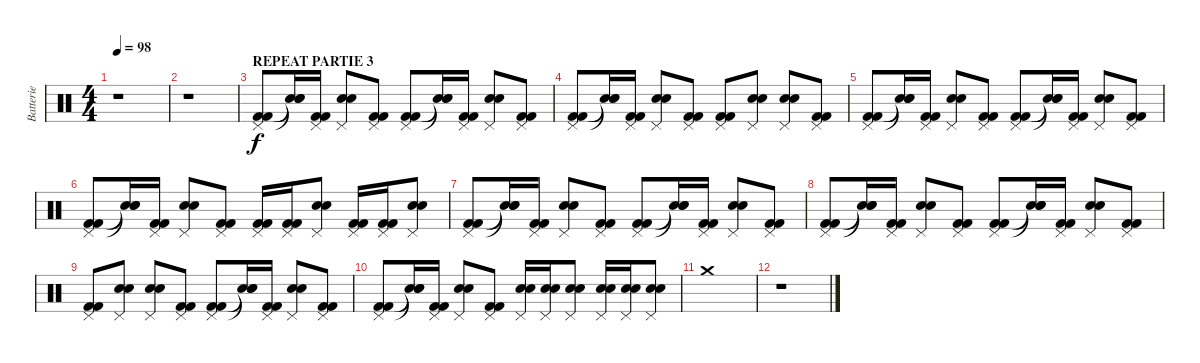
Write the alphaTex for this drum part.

\track ("Batterie" "Batterie") {instrument percussion}
\staff {score}
\articulation defaults
\ts (4 4)
\tempo 98
\clef neutral
\ks c
r.1{dy f} |
r.1 |
\section ("" "REPEAT PARTIE 3")
("Pedal Hi-Hat (hit)" "Kick (hit) 2" "Kick (hit) 2").8 ("Snare (hit)"{t} "Snare (hit)"{t} "Snare (hit)"{t}).16 ("Pedal Hi-Hat (hit)" "Kick (hit) 2" "Kick (hit) 2").16 ("Pedal Hi-Hat (hit)" "Electric Snare (hit)" "Electric Snare (hit)").8 ("Pedal Hi-Hat (hit)" "Kick (hit) 2" "Kick (hit) 2").8 ("Pedal Hi-Hat (hit)" "Kick (hit) 2" "Kick (hit) 2").8 ("Snare (hit)"{t} "Snare (hit)"{t} "Snare (hit)"{t}).16 ("Pedal Hi-Hat (hit)" "Kick (hit) 2" "Kick (hit) 2").16 ("Pedal Hi-Hat (hit)" "Electric Snare (hit)" "Electric Snare (hit)").8 ("Pedal Hi-Hat (hit)" "Kick (hit) 2" "Kick (hit) 2").8 |
("Pedal Hi-Hat (hit)" "Kick (hit) 2" "Kick (hit) 2").8 ("Snare (hit)"{t} "Snare (hit)"{t} "Snare (hit)"{t}).16 ("Pedal Hi-Hat (hit)" "Kick (hit) 2" "Kick (hit) 2").16 ("Pedal Hi-Hat (hit)" "Electric Snare (hit)" "Electric Snare (hit)").8 ("Pedal Hi-Hat (hit)" "Kick (hit) 2" "Kick (hit) 2").8 ("Pedal Hi-Hat (hit)" "Kick (hit) 2" "Kick (hit) 2").8 ("Pedal Hi-Hat (hit)" "Electric Snare (hit)" "Electric Snare (hit)").8 ("Pedal Hi-Hat (hit)" "Electric Snare (hit)" "Electric Snare (hit)").8 ("Pedal Hi-Hat (hit)" "Kick (hit) 2" "Kick (hit) 2").8 |
("Pedal Hi-Hat (hit)" "Kick (hit) 2" "Kick (hit) 2").8 ("Snare (hit)"{t} "Snare (hit)"{t} "Snare (hit)"{t}).16 ("Pedal Hi-Hat (hit)" "Kick (hit) 2" "Kick (hit) 2").16 ("Pedal Hi-Hat (hit)" "Electric Snare (hit)" "Electric Snare (hit)").8 ("Pedal Hi-Hat (hit)" "Kick (hit) 2" "Kick (hit) 2").8 ("Pedal Hi-Hat (hit)" "Kick (hit) 2" "Kick (hit) 2").8 ("Snare (hit)"{t} "Snare (hit)"{t} "Snare (hit)"{t}).16 ("Pedal Hi-Hat (hit)" "Kick (hit) 2" "Kick (hit) 2").16 ("Pedal Hi-Hat (hit)" "Electric Snare (hit)" "Electric Snare (hit)").8 ("Pedal Hi-Hat (hit)" "Kick (hit) 2" "Kick (hit) 2").8 |
("Pedal Hi-Hat (hit)" "Kick (hit) 2" "Kick (hit) 2").8 ("Snare (hit)"{t} "Snare (hit)"{t} "Snare (hit)"{t}).16 ("Pedal Hi-Hat (hit)" "Kick (hit) 2" "Kick (hit) 2").16 ("Pedal Hi-Hat (hit)" "Electric Snare (hit)" "Electric Snare (hit)").8 ("Pedal Hi-Hat (hit)" "Kick (hit) 2" "Kick (hit) 2").8 ("Pedal Hi-Hat (hit)" "Kick (hit) 2" "Kick (hit) 2").16 ("Pedal Hi-Hat (hit)" "Kick (hit) 2" "Kick (hit) 2").16 ("Pedal Hi-Hat (hit)" "Electric Snare (hit)" "Electric Snare (hit)").8 ("Pedal Hi-Hat (hit)" "Kick (hit) 2" "Kick (hit) 2").16 ("Pedal Hi-Hat (hit)" "Kick (hit) 2" "Kick (hit) 2").16 ("Pedal Hi-Hat (hit)" "Electric Snare (hit)" "Electric Snare (hit)").8 |
("Pedal Hi-Hat (hit)" "Kick (hit) 2" "Kick (hit) 2").8 ("Snare (hit)"{t} "Snare (hit)"{t} "Snare (hit)"{t}).16 ("Pedal Hi-Hat (hit)" "Kick (hit) 2" "Kick (hit) 2").16 ("Pedal Hi-Hat (hit)" "Electric Snare (hit)" "Electric Snare (hit)").8 ("Pedal Hi-Hat (hit)" "Kick (hit) 2" "Kick (hit) 2").8 ("Pedal Hi-Hat (hit)" "Kick (hit) 2" "Kick (hit) 2").8 ("Snare (hit)"{t} "Snare (hit)"{t} "Snare (hit)"{t}).16 ("Pedal Hi-Hat (hit)" "Kick (hit) 2" "Kick (hit) 2").16 ("Pedal Hi-Hat (hit)" "Electric Snare (hit)" "Electric Snare (hit)").8 ("Pedal Hi-Hat (hit)" "Kick (hit) 2" "Kick (hit) 2").8 |
("Pedal Hi-Hat (hit)" "Kick (hit) 2" "Kick (hit) 2").8 ("Snare (hit)"{t} "Snare (hit)"{t} "Snare (hit)"{t}).16 ("Pedal Hi-Hat (hit)" "Kick (hit) 2" "Kick (hit) 2").16 ("Pedal Hi-Hat (hit)" "Electric Snare (hit)" "Electric Snare (hit)").8 ("Pedal Hi-Hat (hit)" "Kick (hit) 2" "Kick (hit) 2").8 ("Pedal Hi-Hat (hit)" "Kick (hit) 2" "Kick (hit) 2").8 ("Snare (hit)"{t} "Snare (hit)"{t} "Snare (hit)"{t}).16 ("Pedal Hi-Hat (hit)" "Kick (hit) 2" "Kick (hit) 2").16 ("Pedal Hi-Hat (hit)" "Electric Snare (hit)" "Electric Snare (hit)").8 ("Pedal Hi-Hat (hit)" "Kick (hit) 2" "Kick (hit) 2").8 |
("Pedal Hi-Hat (hit)" "Kick (hit) 2" "Kick (hit) 2").8 ("Pedal Hi-Hat (hit)" "Electric Snare (hit)" "Electric Snare (hit)").8 ("Pedal Hi-Hat (hit)" "Electric Snare (hit)" "Electric Snare (hit)").8 ("Pedal Hi-Hat (hit)" "Kick (hit) 2" "Kick (hit) 2").8 ("Pedal Hi-Hat (hit)" "Kick (hit) 2" "Kick (hit) 2").8 ("Snare (hit)"{t} "Snare (hit)"{t} "Snare (hit)"{t}).16 ("Pedal Hi-Hat (hit)" "Kick (hit) 2" "Kick (hit) 2").16 ("Pedal Hi-Hat (hit)" "Electric Snare (hit)" "Electric Snare (hit)").8 ("Pedal Hi-Hat (hit)" "Kick (hit) 2" "Kick (hit) 2").8 |
("Pedal Hi-Hat (hit)" "Kick (hit) 2" "Kick (hit) 2").8 ("Snare (hit)"{t} "Snare (hit)"{t} "Snare (hit)"{t}).16 ("Pedal Hi-Hat (hit)" "Kick (hit) 2" "Kick (hit) 2").16 ("Pedal Hi-Hat (hit)" "Electric Snare (hit)" "Electric Snare (hit)").8 ("Pedal Hi-Hat (hit)" "Kick (hit) 2" "Kick (hit) 2").8 ("Pedal Hi-Hat (hit)" "Electric Snare (hit)" "Electric Snare (hit)").16 ("Pedal Hi-Hat (hit)" "Electric Snare (hit)" "Electric Snare (hit)").16 ("Pedal Hi-Hat (hit)" "Electric Snare (hit)" "Electric Snare (hit)").8 ("Pedal Hi-Hat (hit)" "Electric Snare (hit)" "Electric Snare (hit)").16 ("Pedal Hi-Hat (hit)" "Electric Snare (hit)" "Electric Snare (hit)").16 ("Pedal Hi-Hat (hit)" "Electric Snare (hit)" "Electric Snare (hit)").8 |
"Crash medium (hit)".1 |
r.1
